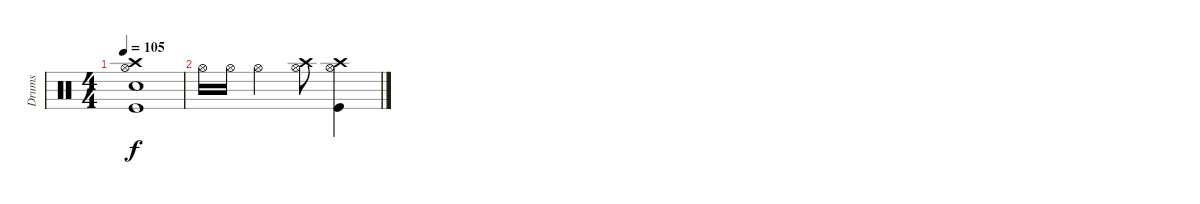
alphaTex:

\track ("Drums" "Drums") {instrument percussion}
\staff {score}
\articulation defaults
\ts (4 4)
\tempo 105
\clef neutral
\ks c
("Crash high (hit)" "Hi-Hat (open)" "Snare (hit) 2" "Kick (hit)").1{dy f} |
"Hi-Hat (open)".16 "Hi-Hat (open)".16 "Hi-Hat (open)".2 ("Crash high (hit)" "Hi-Hat (open)").8 ("Crash high (hit)" "Hi-Hat (open)" "Kick (hit)").4
